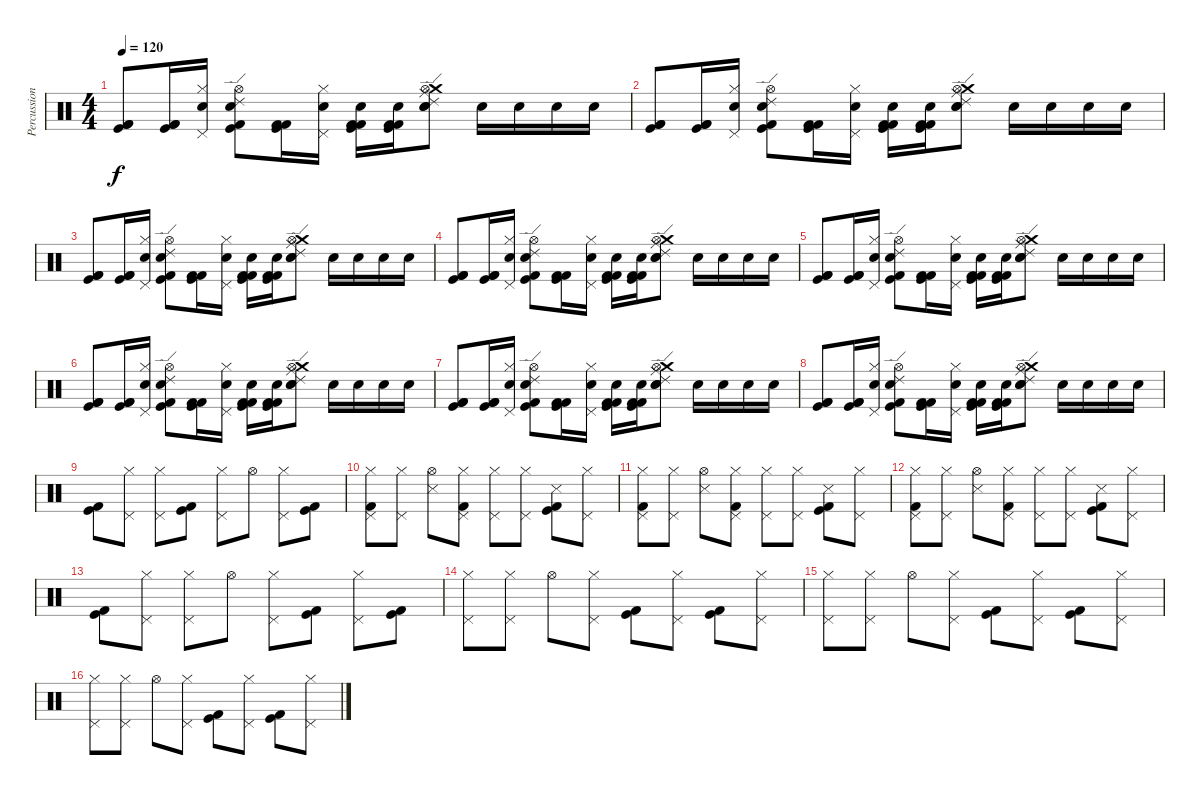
\track ("Percussion" "Percussion") {instrument percussion}
\staff {score}
\articulation defaults
\ts (4 4)
\tempo 120
\clef neutral
\ks c
("Kick (hit) 2" "Kick (hit)" "Kick (hit) 2").8{dy f} ("Kick (hit) 2" "Kick (hit)" "Kick (hit) 2").16 ("Pedal Hi-Hat (hit)" "Hi-Hat (closed)" "Electric Snare (hit)").16 ("Snare (hit) 2" "Kick (hit) 2" "Kick (hit)" "Ride (edge) 2" "Hi-Hat (open)").8 ("Kick (hit) 2" "Kick (hit)" "Kick (hit) 2").16 ("Pedal Hi-Hat (hit)" "Hi-Hat (closed)" "Electric Snare (hit)").16 ("Kick (hit) 2" "Snare (hit) 2" "Kick (hit) 2" "Kick (hit)").16 ("Kick (hit) 2" "Snare (hit) 2" "Kick (hit) 2" "Kick (hit)").16 ("Electric Snare (hit)" "Snare (hit) 2" "Crash medium (hit)" "Hi-Hat (open)" "Ride (middle)" "Ride (edge) 2").8 "Snare (hit) 2".16 "Electric Snare (hit)".16 "Electric Snare (hit)".16 "Snare (hit) 2".16 |
("Kick (hit) 2" "Kick (hit)" "Kick (hit) 2").8 ("Kick (hit) 2" "Kick (hit)" "Kick (hit) 2").16 ("Pedal Hi-Hat (hit)" "Hi-Hat (closed)" "Electric Snare (hit)").16 ("Snare (hit) 2" "Kick (hit) 2" "Kick (hit)" "Ride (edge) 2" "Hi-Hat (open)").8 ("Kick (hit) 2" "Kick (hit)" "Kick (hit) 2").16 ("Pedal Hi-Hat (hit)" "Hi-Hat (closed)" "Electric Snare (hit)").16 ("Kick (hit) 2" "Snare (hit) 2" "Kick (hit) 2" "Kick (hit)").16 ("Kick (hit) 2" "Snare (hit) 2" "Kick (hit) 2" "Kick (hit)").16 ("Electric Snare (hit)" "Snare (hit) 2" "Crash medium (hit)" "Hi-Hat (open)" "Ride (middle)" "Ride (edge) 2").8 "Snare (hit) 2".16 "Electric Snare (hit)".16 "Electric Snare (hit)".16 "Snare (hit) 2".16 |
("Kick (hit) 2" "Kick (hit)" "Kick (hit) 2").8 ("Kick (hit) 2" "Kick (hit)" "Kick (hit) 2").16 ("Pedal Hi-Hat (hit)" "Hi-Hat (closed)" "Electric Snare (hit)").16 ("Snare (hit) 2" "Kick (hit) 2" "Kick (hit)" "Ride (edge) 2" "Hi-Hat (open)").8 ("Kick (hit) 2" "Kick (hit)" "Kick (hit) 2").16 ("Pedal Hi-Hat (hit)" "Hi-Hat (closed)" "Electric Snare (hit)").16 ("Kick (hit) 2" "Snare (hit) 2" "Kick (hit) 2" "Kick (hit)").16 ("Kick (hit) 2" "Snare (hit) 2" "Kick (hit) 2" "Kick (hit)").16 ("Electric Snare (hit)" "Snare (hit) 2" "Crash medium (hit)" "Hi-Hat (open)" "Ride (middle)" "Ride (edge) 2").8 "Snare (hit) 2".16 "Electric Snare (hit)".16 "Electric Snare (hit)".16 "Snare (hit) 2".16 |
("Kick (hit) 2" "Kick (hit)" "Kick (hit) 2").8 ("Kick (hit) 2" "Kick (hit)" "Kick (hit) 2").16 ("Pedal Hi-Hat (hit)" "Hi-Hat (closed)" "Electric Snare (hit)").16 ("Snare (hit) 2" "Kick (hit) 2" "Kick (hit)" "Ride (edge) 2" "Hi-Hat (open)").8 ("Kick (hit) 2" "Kick (hit)" "Kick (hit) 2").16 ("Pedal Hi-Hat (hit)" "Hi-Hat (closed)" "Electric Snare (hit)").16 ("Kick (hit) 2" "Snare (hit) 2" "Kick (hit) 2" "Kick (hit)").16 ("Kick (hit) 2" "Snare (hit) 2" "Kick (hit) 2" "Kick (hit)").16 ("Electric Snare (hit)" "Snare (hit) 2" "Crash medium (hit)" "Hi-Hat (open)" "Ride (middle)" "Ride (edge) 2").8 "Snare (hit) 2".16 "Electric Snare (hit)".16 "Electric Snare (hit)".16 "Snare (hit) 2".16 |
("Kick (hit) 2" "Kick (hit)" "Kick (hit) 2").8 ("Kick (hit) 2" "Kick (hit)" "Kick (hit) 2").16 ("Pedal Hi-Hat (hit)" "Hi-Hat (closed)" "Electric Snare (hit)").16 ("Snare (hit) 2" "Kick (hit) 2" "Kick (hit)" "Ride (edge) 2" "Hi-Hat (open)").8 ("Kick (hit) 2" "Kick (hit)" "Kick (hit) 2").16 ("Pedal Hi-Hat (hit)" "Hi-Hat (closed)" "Electric Snare (hit)").16 ("Kick (hit) 2" "Snare (hit) 2" "Kick (hit) 2" "Kick (hit)").16 ("Kick (hit) 2" "Snare (hit) 2" "Kick (hit) 2" "Kick (hit)").16 ("Electric Snare (hit)" "Snare (hit) 2" "Crash medium (hit)" "Hi-Hat (open)" "Ride (middle)" "Ride (edge) 2").8 "Snare (hit) 2".16 "Electric Snare (hit)".16 "Electric Snare (hit)".16 "Snare (hit) 2".16 |
("Kick (hit) 2" "Kick (hit)" "Kick (hit) 2").8 ("Kick (hit) 2" "Kick (hit)" "Kick (hit) 2").16 ("Pedal Hi-Hat (hit)" "Hi-Hat (closed)" "Electric Snare (hit)").16 ("Snare (hit) 2" "Kick (hit) 2" "Kick (hit)" "Ride (edge) 2" "Hi-Hat (open)").8 ("Kick (hit) 2" "Kick (hit)" "Kick (hit) 2").16 ("Pedal Hi-Hat (hit)" "Hi-Hat (closed)" "Electric Snare (hit)").16 ("Kick (hit) 2" "Snare (hit) 2" "Kick (hit) 2" "Kick (hit)").16 ("Kick (hit) 2" "Snare (hit) 2" "Kick (hit) 2" "Kick (hit)").16 ("Electric Snare (hit)" "Snare (hit) 2" "Crash medium (hit)" "Hi-Hat (open)" "Ride (middle)" "Ride (edge) 2").8 "Snare (hit) 2".16 "Electric Snare (hit)".16 "Electric Snare (hit)".16 "Snare (hit) 2".16 |
("Kick (hit) 2" "Kick (hit)" "Kick (hit) 2").8 ("Kick (hit) 2" "Kick (hit)" "Kick (hit) 2").16 ("Pedal Hi-Hat (hit)" "Hi-Hat (closed)" "Electric Snare (hit)").16 ("Snare (hit) 2" "Kick (hit) 2" "Kick (hit)" "Ride (edge) 2" "Hi-Hat (open)").8 ("Kick (hit) 2" "Kick (hit)" "Kick (hit) 2").16 ("Pedal Hi-Hat (hit)" "Hi-Hat (closed)" "Electric Snare (hit)").16 ("Kick (hit) 2" "Snare (hit) 2" "Kick (hit) 2" "Kick (hit)").16 ("Kick (hit) 2" "Snare (hit) 2" "Kick (hit) 2" "Kick (hit)").16 ("Electric Snare (hit)" "Snare (hit) 2" "Crash medium (hit)" "Hi-Hat (open)" "Ride (middle)" "Ride (edge) 2").8 "Snare (hit) 2".16 "Electric Snare (hit)".16 "Electric Snare (hit)".16 "Snare (hit) 2".16 |
("Kick (hit) 2" "Kick (hit)" "Kick (hit) 2").8 ("Kick (hit) 2" "Kick (hit)" "Kick (hit) 2").16 ("Pedal Hi-Hat (hit)" "Hi-Hat (closed)" "Electric Snare (hit)").16 ("Snare (hit) 2" "Kick (hit) 2" "Kick (hit)" "Ride (edge) 2" "Hi-Hat (open)").8 ("Kick (hit) 2" "Kick (hit)" "Kick (hit) 2").16 ("Pedal Hi-Hat (hit)" "Hi-Hat (closed)" "Electric Snare (hit)").16 ("Kick (hit) 2" "Snare (hit) 2" "Kick (hit) 2" "Kick (hit)").16 ("Kick (hit) 2" "Snare (hit) 2" "Kick (hit) 2" "Kick (hit)").16 ("Electric Snare (hit)" "Snare (hit) 2" "Crash medium (hit)" "Hi-Hat (open)" "Ride (middle)" "Ride (edge) 2").8 "Snare (hit) 2".16 "Electric Snare (hit)".16 "Electric Snare (hit)".16 "Snare (hit) 2".16 |
("Kick (hit)" "Kick (hit) 2").8 ("Pedal Hi-Hat (hit)" "Hi-Hat (closed)").8 ("Pedal Hi-Hat (hit)" "Hi-Hat (closed)").8 ("Kick (hit) 2" "Kick (hit)").8 ("Pedal Hi-Hat (hit)" "Hi-Hat (closed)").8 "Hi-Hat (open)".8 ("Pedal Hi-Hat (hit)" "Hi-Hat (closed)").8 ("Kick (hit) 2" "Kick (hit)").8 |
("Kick (hit) 2" "Pedal Hi-Hat (hit)" "Hi-Hat (closed)").8 ("Pedal Hi-Hat (hit)" "Hi-Hat (closed)").8 ("Hi-Hat (open)" "Snare (side stick) 3").8 ("Kick (hit) 2" "Pedal Hi-Hat (hit)" "Hi-Hat (closed)").8 ("Pedal Hi-Hat (hit)" "Hi-Hat (closed)").8 ("Pedal Hi-Hat (hit)" "Hi-Hat (closed)").8 ("Kick (hit) 2" "Kick (hit)" "Metronome (hit)").8 ("Pedal Hi-Hat (hit)" "Hi-Hat (closed)").8 |
("Kick (hit) 2" "Pedal Hi-Hat (hit)" "Hi-Hat (closed)").8 ("Pedal Hi-Hat (hit)" "Hi-Hat (closed)").8 ("Hi-Hat (open)" "Snare (side stick) 3").8 ("Kick (hit) 2" "Pedal Hi-Hat (hit)" "Hi-Hat (closed)").8 ("Pedal Hi-Hat (hit)" "Hi-Hat (closed)").8 ("Pedal Hi-Hat (hit)" "Hi-Hat (closed)").8 ("Kick (hit) 2" "Kick (hit)" "Metronome (hit)").8 ("Pedal Hi-Hat (hit)" "Hi-Hat (closed)").8 |
("Kick (hit) 2" "Pedal Hi-Hat (hit)" "Hi-Hat (closed)").8 ("Pedal Hi-Hat (hit)" "Hi-Hat (closed)").8 ("Hi-Hat (open)" "Snare (side stick) 3").8 ("Kick (hit) 2" "Pedal Hi-Hat (hit)" "Hi-Hat (closed)").8 ("Pedal Hi-Hat (hit)" "Hi-Hat (closed)").8 ("Pedal Hi-Hat (hit)" "Hi-Hat (closed)").8 ("Kick (hit) 2" "Kick (hit)" "Metronome (hit)").8 ("Pedal Hi-Hat (hit)" "Hi-Hat (closed)").8 |
("Kick (hit) 2" "Kick (hit)").8 ("Pedal Hi-Hat (hit)" "Hi-Hat (closed)").8 ("Pedal Hi-Hat (hit)" "Hi-Hat (closed)").8 "Hi-Hat (open)".8 ("Pedal Hi-Hat (hit)" "Hi-Hat (closed)").8 ("Kick (hit) 2" "Kick (hit)").8 ("Pedal Hi-Hat (hit)" "Hi-Hat (closed)").8 ("Kick (hit) 2" "Kick (hit)").8 |
("Pedal Hi-Hat (hit)" "Hi-Hat (closed)").8 ("Pedal Hi-Hat (hit)" "Hi-Hat (closed)").8 "Hi-Hat (open)".8 ("Pedal Hi-Hat (hit)" "Hi-Hat (closed)").8 ("Kick (hit) 2" "Kick (hit)").8 ("Pedal Hi-Hat (hit)" "Hi-Hat (closed)").8 ("Kick (hit) 2" "Kick (hit)").8 ("Pedal Hi-Hat (hit)" "Hi-Hat (closed)").8 |
("Pedal Hi-Hat (hit)" "Hi-Hat (closed)").8 ("Pedal Hi-Hat (hit)" "Hi-Hat (closed)").8 "Hi-Hat (open)".8 ("Pedal Hi-Hat (hit)" "Hi-Hat (closed)").8 ("Kick (hit) 2" "Kick (hit)").8 ("Pedal Hi-Hat (hit)" "Hi-Hat (closed)").8 ("Kick (hit) 2" "Kick (hit)").8 ("Pedal Hi-Hat (hit)" "Hi-Hat (closed)").8 |
("Pedal Hi-Hat (hit)" "Hi-Hat (closed)").8 ("Pedal Hi-Hat (hit)" "Hi-Hat (closed)").8 "Hi-Hat (open)".8 ("Pedal Hi-Hat (hit)" "Hi-Hat (closed)").8 ("Kick (hit) 2" "Kick (hit)").8 ("Pedal Hi-Hat (hit)" "Hi-Hat (closed)").8 ("Kick (hit) 2" "Kick (hit)").8 ("Pedal Hi-Hat (hit)" "Hi-Hat (closed)").8
